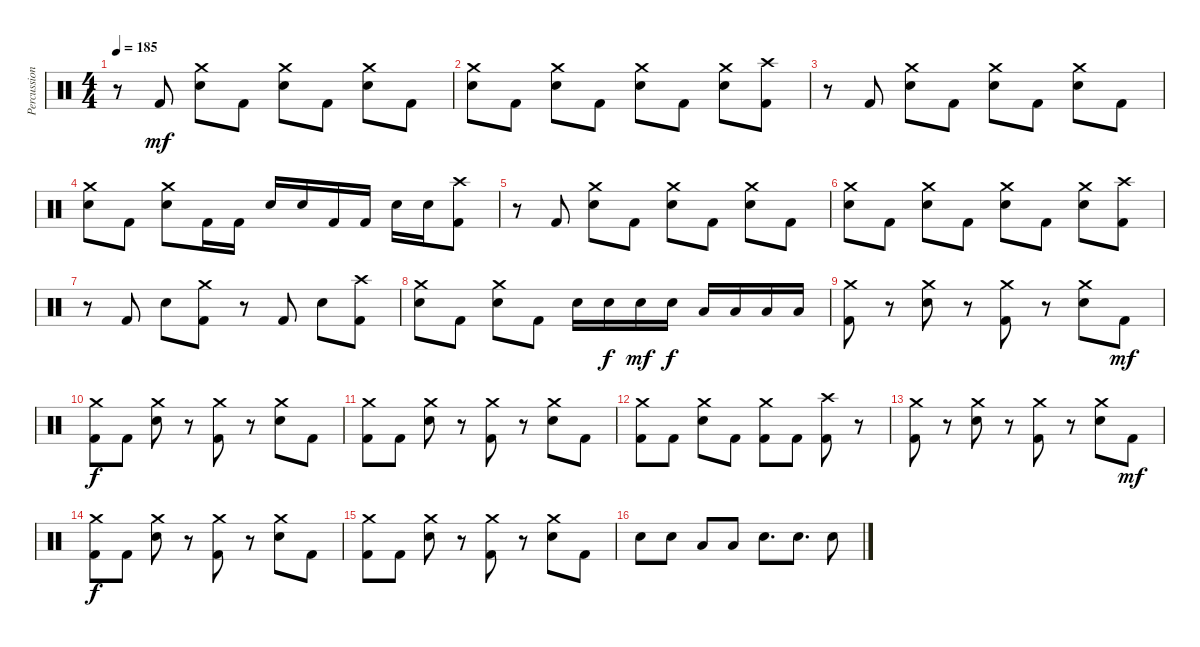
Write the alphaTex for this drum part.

\track ("Percussions" "Percussion") {instrument percussion}
\staff {score}
\articulation defaults
\ts (4 4)
\tempo 185
\clef neutral
\ks c
r.8{dy mf} "Kick (hit) 2".8 ("Electric Snare (hit)" "Crash medium (hit)").8 "Kick (hit) 2".8 ("Electric Snare (hit)" "Crash medium (hit)").8 "Kick (hit) 2".8 ("Electric Snare (hit)" "Crash medium (hit)").8 "Kick (hit) 2".8 |
("Electric Snare (hit)" "Crash medium (hit)").8 "Kick (hit) 2".8 ("Electric Snare (hit)" "Crash medium (hit)").8 "Kick (hit) 2".8 ("Electric Snare (hit)" "Crash medium (hit)").8 "Kick (hit) 2".8 ("Electric Snare (hit)" "Crash medium (hit)").8 ("Kick (hit) 2" "Crash high (hit)").8 |
r.8 "Kick (hit) 2".8 ("Electric Snare (hit)" "Crash medium (hit)").8 "Kick (hit) 2".8 ("Electric Snare (hit)" "Crash medium (hit)").8 "Kick (hit) 2".8 ("Electric Snare (hit)" "Crash medium (hit)").8 "Kick (hit) 2".8 |
("Electric Snare (hit)" "Crash medium (hit)").8 "Kick (hit) 2".8 ("Electric Snare (hit)" "Crash medium (hit)").8 "Kick (hit) 2".16 "Kick (hit) 2".16 "Electric Snare (hit)".16 "Electric Snare (hit)".16 "Kick (hit) 2".16 "Kick (hit) 2".16 "Electric Snare (hit)".16 "Electric Snare (hit)".16 ("Kick (hit) 2" "Crash high (hit)").8 |
r.8 "Kick (hit) 2".8 ("Electric Snare (hit)" "Crash medium (hit)").8 "Kick (hit) 2".8 ("Electric Snare (hit)" "Crash medium (hit)").8 "Kick (hit) 2".8 ("Electric Snare (hit)" "Crash medium (hit)").8 "Kick (hit) 2".8 |
("Electric Snare (hit)" "Crash medium (hit)").8 "Kick (hit) 2".8 ("Electric Snare (hit)" "Crash medium (hit)").8 "Kick (hit) 2".8 ("Electric Snare (hit)" "Crash medium (hit)").8 "Kick (hit) 2".8 ("Electric Snare (hit)" "Crash medium (hit)").8 ("Kick (hit) 2" "Crash high (hit)").8 |
r.8 "Kick (hit) 2".8 "Electric Snare (hit)".8 ("Kick (hit) 2" "Crash medium (hit)").8 r.8 "Kick (hit) 2".8 "Electric Snare (hit)".8 ("Kick (hit) 2" "Crash high (hit)").8 |
("Electric Snare (hit)" "Crash medium (hit)").8 "Kick (hit) 2".8 ("Electric Snare (hit)" "Crash medium (hit)").8 "Kick (hit) 2".8 "Electric Snare (hit)".16 "Electric Snare (hit)".16{dy f} "Electric Snare (hit)".16{dy mf} "Electric Snare (hit)".16{dy f} "Low Tom (hit)".16 "Low Tom (hit)".16 "Low Tom (hit)".16 "Low Tom (hit)".16 |
("Kick (hit) 2" "Crash medium (hit)").8 r.8 ("Electric Snare (hit)" "Crash medium (hit)").8 r.8 ("Kick (hit) 2" "Crash medium (hit)").8 r.8 ("Electric Snare (hit)" "Crash medium (hit)").8 "Kick (hit) 2".8{dy mf} |
("Kick (hit) 2" "Crash medium (hit)").8{dy f} "Kick (hit) 2".8 ("Electric Snare (hit)" "Crash medium (hit)").8 r.8 ("Kick (hit) 2" "Crash medium (hit)").8 r.8 ("Electric Snare (hit)" "Crash medium (hit)").8 "Kick (hit) 2".8 |
("Kick (hit) 2" "Crash medium (hit)").8 "Kick (hit) 2".8 ("Electric Snare (hit)" "Crash medium (hit)").8 r.8 ("Kick (hit) 2" "Crash medium (hit)").8 r.8 ("Electric Snare (hit)" "Crash medium (hit)").8 "Kick (hit) 2".8 |
("Kick (hit) 2" "Crash medium (hit)").8 "Kick (hit) 2".8 ("Electric Snare (hit)" "Crash medium (hit)").8 "Kick (hit) 2".8 ("Kick (hit) 2" "Crash medium (hit)").8 "Kick (hit) 2".8 ("Kick (hit) 2" "Crash high (hit)").8 r.8 |
("Kick (hit) 2" "Crash medium (hit)").8 r.8 ("Electric Snare (hit)" "Crash medium (hit)").8 r.8 ("Kick (hit) 2" "Crash medium (hit)").8 r.8 ("Electric Snare (hit)" "Crash medium (hit)").8 "Kick (hit) 2".8{dy mf} |
("Kick (hit) 2" "Crash medium (hit)").8{dy f} "Kick (hit) 2".8 ("Electric Snare (hit)" "Crash medium (hit)").8 r.8 ("Kick (hit) 2" "Crash medium (hit)").8 r.8 ("Electric Snare (hit)" "Crash medium (hit)").8 "Kick (hit) 2".8 |
("Kick (hit) 2" "Crash medium (hit)").8 "Kick (hit) 2".8 ("Electric Snare (hit)" "Crash medium (hit)").8 r.8 ("Kick (hit) 2" "Crash medium (hit)").8 r.8 ("Electric Snare (hit)" "Crash medium (hit)").8 "Kick (hit) 2".8 |
"Electric Snare (hit)".8 "Electric Snare (hit)".8 "Low Tom (hit)".8 "Low Tom (hit)".8 "Electric Snare (hit)".8{d} "Electric Snare (hit)".8{d} "Electric Snare (hit)".8
